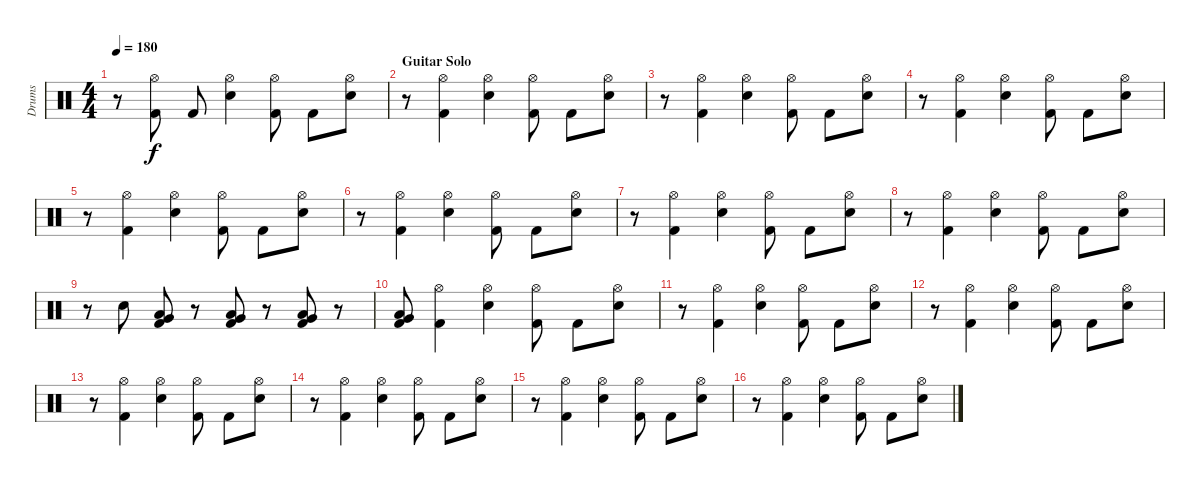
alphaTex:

\track ("Drums" "Drums") {instrument percussion}
\staff {score}
\articulation defaults
\ts (4 4)
\tempo 180
\clef neutral
\ks c
r.8{dy f} ("Hi-Hat (open)" "Kick (hit) 2").8 "Kick (hit) 2".8 ("Hi-Hat (open)" "Snare (hit) 2").4 ("Hi-Hat (open)" "Kick (hit) 2").8 "Kick (hit) 2".8 ("Hi-Hat (open)" "Snare (hit) 2").8 |
\section ("" "Guitar Solo")
r.8 ("Hi-Hat (open)" "Kick (hit) 2").4 ("Hi-Hat (open)" "Snare (hit) 2").4 ("Hi-Hat (open)" "Kick (hit) 2").8 "Kick (hit) 2".8 ("Hi-Hat (open)" "Snare (hit) 2").8 |
r.8 ("Hi-Hat (open)" "Kick (hit) 2").4 ("Hi-Hat (open)" "Snare (hit) 2").4 ("Hi-Hat (open)" "Kick (hit) 2").8 "Kick (hit) 2".8 ("Hi-Hat (open)" "Snare (hit) 2").8 |
r.8 ("Hi-Hat (open)" "Kick (hit) 2").4 ("Hi-Hat (open)" "Snare (hit) 2").4 ("Hi-Hat (open)" "Kick (hit) 2").8 "Kick (hit) 2".8 ("Hi-Hat (open)" "Snare (hit) 2").8 |
r.8 ("Hi-Hat (open)" "Kick (hit) 2").4 ("Hi-Hat (open)" "Snare (hit) 2").4 ("Hi-Hat (open)" "Kick (hit) 2").8 "Kick (hit) 2".8 ("Hi-Hat (open)" "Snare (hit) 2").8 |
r.8 ("Hi-Hat (open)" "Kick (hit) 2").4 ("Hi-Hat (open)" "Snare (hit) 2").4 ("Hi-Hat (open)" "Kick (hit) 2").8 "Kick (hit) 2".8 ("Hi-Hat (open)" "Snare (hit) 2").8 |
r.8 ("Hi-Hat (open)" "Kick (hit) 2").4 ("Hi-Hat (open)" "Snare (hit) 2").4 ("Hi-Hat (open)" "Kick (hit) 2").8 "Kick (hit) 2".8 ("Hi-Hat (open)" "Snare (hit) 2").8 |
r.8 ("Hi-Hat (open)" "Kick (hit) 2").4 ("Hi-Hat (open)" "Snare (hit) 2").4 ("Hi-Hat (open)" "Kick (hit) 2").8 "Kick (hit) 2".8 ("Hi-Hat (open)" "Snare (hit) 2").8 |
r.8 "Snare (hit) 2".8 ("Very Low Tom (hit)" "Low Floor Tom (hit)" "Kick (hit) 2").8 r.8 ("Very Low Tom (hit)" "Low Floor Tom (hit)" "Kick (hit) 2").8 r.8 ("Very Low Tom (hit)" "Low Floor Tom (hit)" "Kick (hit) 2").8 r.8 |
("Very Low Tom (hit)" "Low Floor Tom (hit)" "Kick (hit) 2").8 ("Hi-Hat (open)" "Kick (hit) 2").4 ("Hi-Hat (open)" "Snare (hit) 2").4 ("Hi-Hat (open)" "Kick (hit) 2").8 "Kick (hit) 2".8 ("Hi-Hat (open)" "Snare (hit) 2").8 |
r.8 ("Hi-Hat (open)" "Kick (hit) 2").4 ("Hi-Hat (open)" "Snare (hit) 2").4 ("Hi-Hat (open)" "Kick (hit) 2").8 "Kick (hit) 2".8 ("Hi-Hat (open)" "Snare (hit) 2").8 |
r.8 ("Hi-Hat (open)" "Kick (hit) 2").4 ("Hi-Hat (open)" "Snare (hit) 2").4 ("Hi-Hat (open)" "Kick (hit) 2").8 "Kick (hit) 2".8 ("Hi-Hat (open)" "Snare (hit) 2").8 |
r.8 ("Hi-Hat (open)" "Kick (hit) 2").4 ("Hi-Hat (open)" "Snare (hit) 2").4 ("Hi-Hat (open)" "Kick (hit) 2").8 "Kick (hit) 2".8 ("Hi-Hat (open)" "Snare (hit) 2").8 |
r.8 ("Hi-Hat (open)" "Kick (hit) 2").4 ("Hi-Hat (open)" "Snare (hit) 2").4 ("Hi-Hat (open)" "Kick (hit) 2").8 "Kick (hit) 2".8 ("Hi-Hat (open)" "Snare (hit) 2").8 |
r.8 ("Hi-Hat (open)" "Kick (hit) 2").4 ("Hi-Hat (open)" "Snare (hit) 2").4 ("Hi-Hat (open)" "Kick (hit) 2").8 "Kick (hit) 2".8 ("Hi-Hat (open)" "Snare (hit) 2").8 |
r.8 ("Hi-Hat (open)" "Kick (hit) 2").4 ("Hi-Hat (open)" "Snare (hit) 2").4 ("Hi-Hat (open)" "Kick (hit) 2").8 "Kick (hit) 2".8 ("Hi-Hat (open)" "Snare (hit) 2").8
